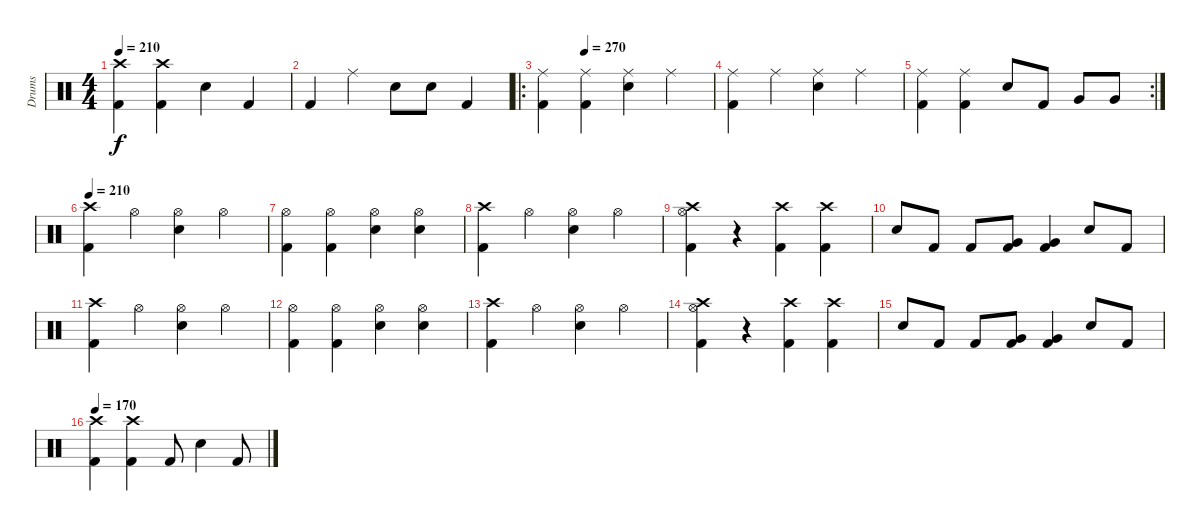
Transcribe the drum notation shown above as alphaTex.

\track ("Drums" "Drums") {instrument percussion}
\staff {score}
\articulation defaults
\ts (4 4)
\tempo 210
\clef neutral
\ks c
("Kick (hit) 2" "Crash high (hit)").4{dy f} ("Kick (hit) 2" "Crash high (hit)").4 "Snare (hit) 2".4 "Kick (hit) 2".4 |
"Kick (hit) 2".4 "Ride (middle)".4 "Snare (hit) 2".8 "Snare (hit) 2".8 "Kick (hit) 2".4 |
\ro
\tempo (270 0.25)
("Ride (middle)" "Kick (hit) 2").4 ("Ride (middle)" "Kick (hit) 2").4 ("Ride (middle)" "Snare (hit) 2").4 "Ride (middle)".4 |
("Ride (middle)" "Kick (hit) 2").4 "Ride (middle)".4 ("Ride (middle)" "Snare (hit) 2").4 "Ride (middle)".4 |
\rc 2
("Ride (middle)" "Kick (hit) 2").4 ("Ride (middle)" "Kick (hit) 2").4 "Snare (hit) 2".8 "Kick (hit) 2".8 "Very Low Tom (hit)".8 "Very Low Tom (hit)".8 |
\tempo 210
("Crash high (hit)" "Kick (hit) 2").4 "Hi-Hat (open)".4 ("Hi-Hat (open)" "Snare (hit) 2").4 "Hi-Hat (open)".4 |
("Hi-Hat (open)" "Kick (hit) 2").4 ("Hi-Hat (open)" "Kick (hit) 2").4 ("Hi-Hat (open)" "Snare (hit) 2").4 ("Hi-Hat (open)" "Snare (hit) 2").4 |
("Crash high (hit)" "Kick (hit) 2").4 "Hi-Hat (open)".4 ("Snare (hit) 2" "Hi-Hat (open)").4 "Hi-Hat (open)".4 |
("Hi-Hat (open)" "Kick (hit) 2" "Crash high (hit)").4 r.4 ("Crash high (hit)" "Kick (hit) 2").4 ("Crash high (hit)" "Kick (hit) 2").4 |
"Snare (hit) 2".8 "Kick (hit) 2".8 "Kick (hit) 2".8 ("Kick (hit) 2" "Very Low Tom (hit)").8 ("Very Low Tom (hit)" "Kick (hit) 2").4 "Snare (hit) 2".8 "Kick (hit) 2".8 |
("Crash high (hit)" "Kick (hit) 2").4 "Hi-Hat (open)".4 ("Hi-Hat (open)" "Snare (hit) 2").4 "Hi-Hat (open)".4 |
("Hi-Hat (open)" "Kick (hit) 2").4 ("Hi-Hat (open)" "Kick (hit) 2").4 ("Hi-Hat (open)" "Snare (hit) 2").4 ("Hi-Hat (open)" "Snare (hit) 2").4 |
("Crash high (hit)" "Kick (hit) 2").4 "Hi-Hat (open)".4 ("Snare (hit) 2" "Hi-Hat (open)").4 "Hi-Hat (open)".4 |
("Hi-Hat (open)" "Kick (hit) 2" "Crash high (hit)").4 r.4 ("Crash high (hit)" "Kick (hit) 2").4 ("Crash high (hit)" "Kick (hit) 2").4 |
"Snare (hit) 2".8 "Kick (hit) 2".8 "Kick (hit) 2".8 ("Kick (hit) 2" "Very Low Tom (hit)").8 ("Very Low Tom (hit)" "Kick (hit) 2").4 "Snare (hit) 2".8 "Kick (hit) 2".8 |
\tempo 170
("Kick (hit) 2" "Crash high (hit)").4 ("Kick (hit) 2" "Crash high (hit)").4 "Kick (hit) 2".8 "Snare (hit) 2".4 "Kick (hit) 2".8
